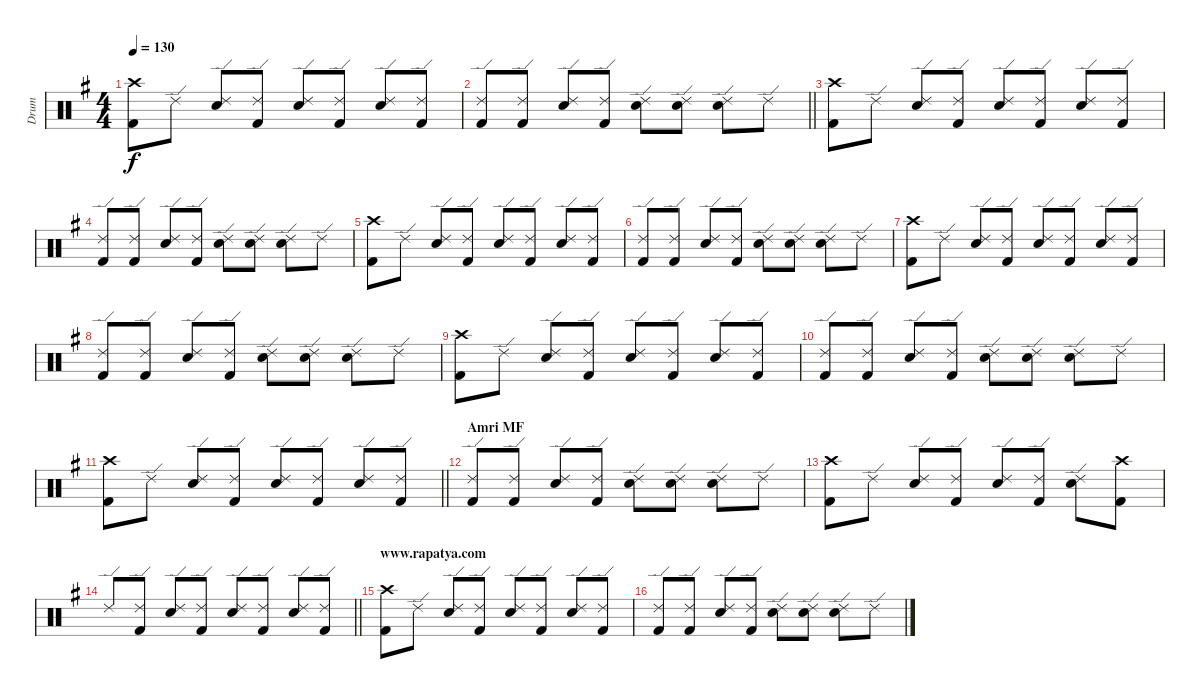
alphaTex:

\track ("Drum" "Drum") {instrument percussion}
\staff {score}
\articulation defaults
\ts (4 4)
\tempo 130
\clef neutral
\ks g
("Kick (hit) 2" "Crash high (hit)").8{dy f} "Ride (edge) 2".8 ("Ride (edge) 2" "Electric Snare (hit)").8 ("Ride (edge) 2" "Kick (hit) 2").8 ("Electric Snare (hit)" "Ride (edge) 2").8 ("Ride (edge) 2" "Kick (hit) 2").8 ("Electric Snare (hit)" "Ride (edge) 2").8 ("Kick (hit) 2" "Ride (edge) 2").8 |
\barLineRight lightlight
("Kick (hit) 2" "Ride (edge) 2").8 ("Kick (hit) 2" "Ride (edge) 2").8 ("Ride (edge) 2" "Electric Snare (hit)").8 ("Ride (edge) 2" "Kick (hit) 2").8 ("Electric Snare (hit)" "Ride (edge) 2").8 ("Ride (edge) 2" "Electric Snare (hit)").8 ("Electric Snare (hit)" "Ride (edge) 2").8 "Ride (edge) 2".8{volume 0} |
("Kick (hit) 2" "Crash high (hit)").8 "Ride (edge) 2".8 ("Ride (edge) 2" "Electric Snare (hit)").8 ("Ride (edge) 2" "Kick (hit) 2").8 ("Electric Snare (hit)" "Ride (edge) 2").8 ("Ride (edge) 2" "Kick (hit) 2").8 ("Electric Snare (hit)" "Ride (edge) 2").8 ("Kick (hit) 2" "Ride (edge) 2").8 |
("Kick (hit) 2" "Ride (edge) 2").8 ("Kick (hit) 2" "Ride (edge) 2").8 ("Ride (edge) 2" "Electric Snare (hit)").8 ("Ride (edge) 2" "Kick (hit) 2").8 ("Electric Snare (hit)" "Ride (edge) 2").8 ("Ride (edge) 2" "Electric Snare (hit)").8 ("Electric Snare (hit)" "Ride (edge) 2").8 "Ride (edge) 2".8 |
("Kick (hit) 2" "Crash high (hit)").8 "Ride (edge) 2".8 ("Ride (edge) 2" "Electric Snare (hit)").8 ("Ride (edge) 2" "Kick (hit) 2").8 ("Electric Snare (hit)" "Ride (edge) 2").8 ("Ride (edge) 2" "Kick (hit) 2").8 ("Electric Snare (hit)" "Ride (edge) 2").8 ("Kick (hit) 2" "Ride (edge) 2").8 |
("Kick (hit) 2" "Ride (edge) 2").8 ("Kick (hit) 2" "Ride (edge) 2").8 ("Ride (edge) 2" "Electric Snare (hit)").8 ("Ride (edge) 2" "Kick (hit) 2").8 ("Electric Snare (hit)" "Ride (edge) 2").8 ("Ride (edge) 2" "Electric Snare (hit)").8 ("Electric Snare (hit)" "Ride (edge) 2").8 "Ride (edge) 2".8 |
("Kick (hit) 2" "Crash high (hit)").8 "Ride (edge) 2".8 ("Ride (edge) 2" "Electric Snare (hit)").8 ("Ride (edge) 2" "Kick (hit) 2").8 ("Electric Snare (hit)" "Ride (edge) 2").8 ("Ride (edge) 2" "Kick (hit) 2").8 ("Electric Snare (hit)" "Ride (edge) 2").8 ("Kick (hit) 2" "Ride (edge) 2").8 |
("Kick (hit) 2" "Ride (edge) 2").8 ("Kick (hit) 2" "Ride (edge) 2").8 ("Ride (edge) 2" "Electric Snare (hit)").8 ("Ride (edge) 2" "Kick (hit) 2").8 ("Electric Snare (hit)" "Ride (edge) 2").8 ("Ride (edge) 2" "Electric Snare (hit)").8 ("Electric Snare (hit)" "Ride (edge) 2").8 "Ride (edge) 2".8 |
("Kick (hit) 2" "Crash high (hit)").8 "Ride (edge) 2".8 ("Ride (edge) 2" "Electric Snare (hit)").8 ("Ride (edge) 2" "Kick (hit) 2").8 ("Electric Snare (hit)" "Ride (edge) 2").8 ("Ride (edge) 2" "Kick (hit) 2").8 ("Electric Snare (hit)" "Ride (edge) 2").8 ("Kick (hit) 2" "Ride (edge) 2").8 |
("Kick (hit) 2" "Ride (edge) 2").8 ("Kick (hit) 2" "Ride (edge) 2").8 ("Ride (edge) 2" "Electric Snare (hit)").8 ("Ride (edge) 2" "Kick (hit) 2").8 ("Electric Snare (hit)" "Ride (edge) 2").8 ("Ride (edge) 2" "Electric Snare (hit)").8 ("Electric Snare (hit)" "Ride (edge) 2").8 "Ride (edge) 2".8 |
\barLineRight lightlight
("Kick (hit) 2" "Crash high (hit)").8 "Ride (edge) 2".8 ("Ride (edge) 2" "Electric Snare (hit)").8 ("Ride (edge) 2" "Kick (hit) 2").8 ("Electric Snare (hit)" "Ride (edge) 2").8 ("Ride (edge) 2" "Kick (hit) 2").8 ("Electric Snare (hit)" "Ride (edge) 2").8 ("Kick (hit) 2" "Ride (edge) 2").8 |
\section ("" "Amri MF")
("Kick (hit) 2" "Ride (edge) 2").8 ("Kick (hit) 2" "Ride (edge) 2").8 ("Ride (edge) 2" "Electric Snare (hit)").8 ("Ride (edge) 2" "Kick (hit) 2").8 ("Electric Snare (hit)" "Ride (edge) 2").8 ("Ride (edge) 2" "Electric Snare (hit)").8 ("Electric Snare (hit)" "Ride (edge) 2").8 "Ride (edge) 2".8 |
("Kick (hit) 2" "Crash high (hit)").8 "Ride (edge) 2".8 ("Ride (edge) 2" "Electric Snare (hit)").8 ("Ride (edge) 2" "Kick (hit) 2").8 ("Electric Snare (hit)" "Ride (edge) 2").8 ("Ride (edge) 2" "Kick (hit) 2").8 ("Electric Snare (hit)" "Ride (edge) 2").8 ("Kick (hit) 2" "Crash high (hit)").8 |
\barLineRight lightlight "Ride (edge) 2".8
("Kick (hit) 2" "Ride (edge) 2").8 ("Ride (edge) 2" "Electric Snare (hit)").8 ("Ride (edge) 2" "Kick (hit) 2").8 ("Electric Snare (hit)" "Ride (edge) 2").8 ("Ride (edge) 2" "Kick (hit) 2").8 ("Electric Snare (hit)" "Ride (edge) 2").8 ("Kick (hit) 2" "Ride (edge) 2").8 |
\section ("" "www.rapatya.com")
("Kick (hit) 2" "Crash high (hit)").8 "Ride (edge) 2".8 ("Ride (edge) 2" "Electric Snare (hit)").8 ("Ride (edge) 2" "Kick (hit) 2").8 ("Electric Snare (hit)" "Ride (edge) 2").8 ("Ride (edge) 2" "Kick (hit) 2").8 ("Electric Snare (hit)" "Ride (edge) 2").8 ("Kick (hit) 2" "Ride (edge) 2").8 |
("Kick (hit) 2" "Ride (edge) 2").8 ("Kick (hit) 2" "Ride (edge) 2").8 ("Ride (edge) 2" "Electric Snare (hit)").8 ("Ride (edge) 2" "Kick (hit) 2").8 ("Electric Snare (hit)" "Ride (edge) 2").8 ("Ride (edge) 2" "Electric Snare (hit)").8 ("Electric Snare (hit)" "Ride (edge) 2").8 "Ride (edge) 2".8
